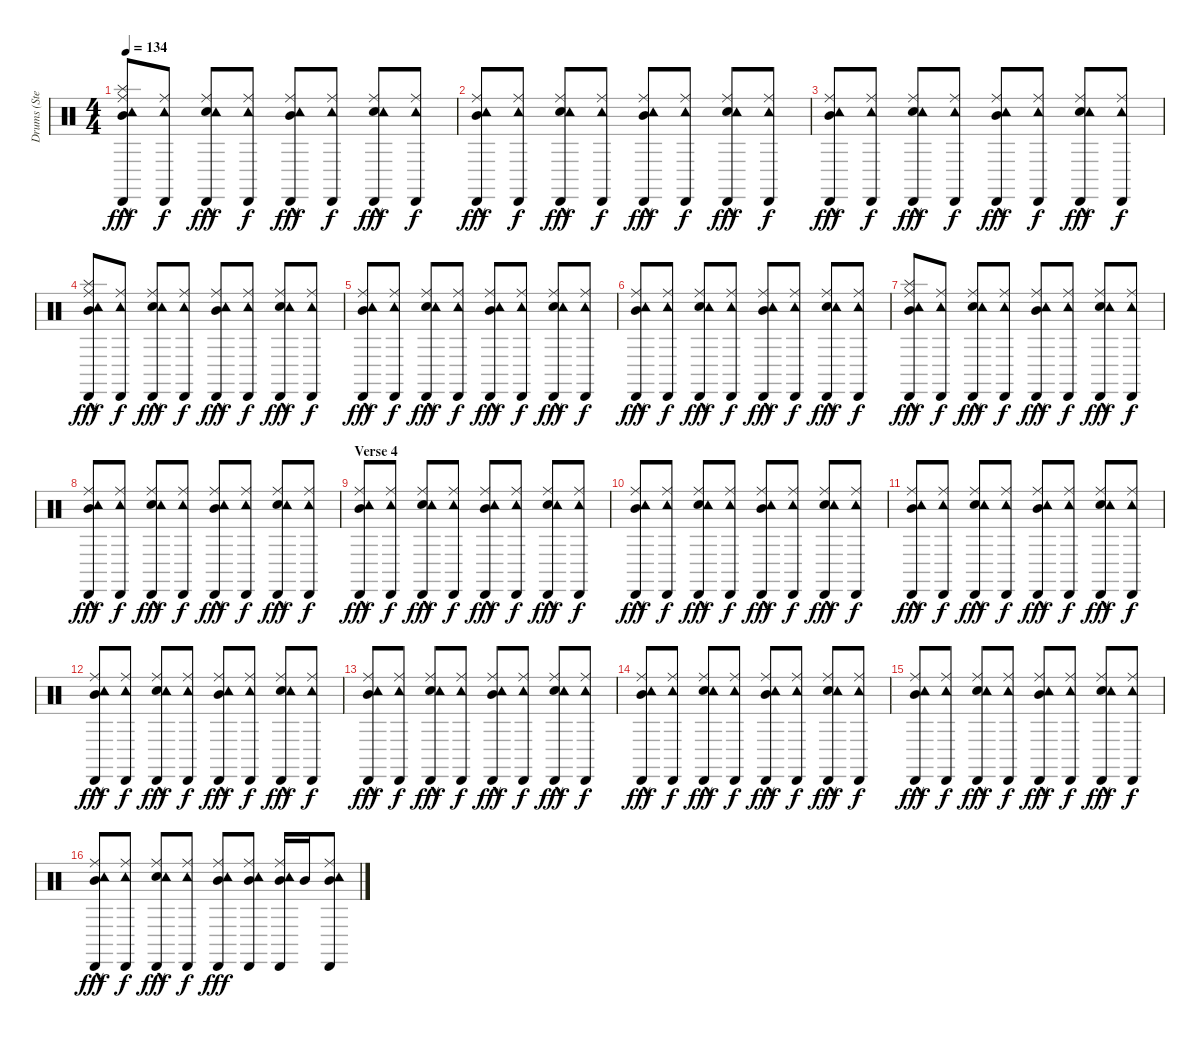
\track ("Drums (Steven)" "Drums (Ste") {instrument percussion}
\staff {score}
\articulation defaults
\ts (4 4)
\tempo 134
\clef neutral
\ks c
("Mid Tom (hit)"{hac} "Splash (hit)"{hac} "Ride (middle)" "Tambourine (hit)" "Cabasa (hit)").8{dy fff} ("Ride (middle)" "Tambourine (hit)" "Cabasa (hit)").8{dy f} ("Electric Snare (hit)"{hac} "Ride (middle)" "Tambourine (hit)" "Cabasa (hit)").8{dy fff} ("Ride (middle)" "Tambourine (hit)" "Cabasa (hit)").8{dy f} ("Mid Tom (hit)"{hac} "Ride (middle)" "Tambourine (hit)" "Cabasa (hit)").8{dy fff} ("Ride (middle)" "Tambourine (hit)" "Cabasa (hit)").8{dy f} ("Electric Snare (hit)"{hac} "Ride (middle)" "Tambourine (hit)" "Cabasa (hit)").8{dy fff} ("Ride (middle)" "Tambourine (hit)" "Cabasa (hit)").8{dy f} |
("Mid Tom (hit)"{hac} "Ride (middle)" "Tambourine (hit)" "Cabasa (hit)").8{dy fff} ("Ride (middle)" "Tambourine (hit)" "Cabasa (hit)").8{dy f} ("Electric Snare (hit)"{hac} "Ride (middle)" "Tambourine (hit)" "Cabasa (hit)").8{dy fff} ("Ride (middle)" "Tambourine (hit)" "Cabasa (hit)").8{dy f} ("Mid Tom (hit)"{hac} "Ride (middle)" "Tambourine (hit)" "Cabasa (hit)").8{dy fff} ("Ride (middle)" "Tambourine (hit)" "Cabasa (hit)").8{dy f} ("Electric Snare (hit)"{hac} "Ride (middle)" "Tambourine (hit)" "Cabasa (hit)").8{dy fff} ("Ride (middle)" "Tambourine (hit)" "Cabasa (hit)").8{dy f} |
("Mid Tom (hit)"{hac} "Ride (middle)" "Tambourine (hit)" "Cabasa (hit)").8{dy fff} ("Ride (middle)" "Tambourine (hit)" "Cabasa (hit)").8{dy f} ("Electric Snare (hit)"{hac} "Ride (middle)" "Tambourine (hit)" "Cabasa (hit)").8{dy fff} ("Ride (middle)" "Tambourine (hit)" "Cabasa (hit)").8{dy f} ("Mid Tom (hit)"{hac} "Ride (middle)" "Tambourine (hit)" "Cabasa (hit)").8{dy fff} ("Ride (middle)" "Tambourine (hit)" "Cabasa (hit)").8{dy f} ("Electric Snare (hit)"{hac} "Ride (middle)" "Tambourine (hit)" "Cabasa (hit)").8{dy fff} ("Ride (middle)" "Tambourine (hit)" "Cabasa (hit)").8{dy f} |
("Mid Tom (hit)"{hac} "Splash (hit)"{hac} "Ride (middle)" "Tambourine (hit)" "Cabasa (hit)").8{dy fff} ("Ride (middle)" "Tambourine (hit)" "Cabasa (hit)").8{dy f} ("Electric Snare (hit)"{hac} "Ride (middle)" "Tambourine (hit)" "Cabasa (hit)").8{dy fff} ("Ride (middle)" "Tambourine (hit)" "Cabasa (hit)").8{dy f} ("Mid Tom (hit)"{hac} "Ride (middle)" "Tambourine (hit)" "Cabasa (hit)").8{dy fff} ("Ride (middle)" "Tambourine (hit)" "Cabasa (hit)").8{dy f} ("Electric Snare (hit)"{hac} "Ride (middle)" "Tambourine (hit)" "Cabasa (hit)").8{dy fff} ("Ride (middle)" "Tambourine (hit)" "Cabasa (hit)").8{dy f} |
("Mid Tom (hit)"{hac} "Ride (middle)" "Tambourine (hit)" "Cabasa (hit)").8{dy fff} ("Ride (middle)" "Tambourine (hit)" "Cabasa (hit)").8{dy f} ("Electric Snare (hit)"{hac} "Ride (middle)" "Tambourine (hit)" "Cabasa (hit)").8{dy fff} ("Ride (middle)" "Tambourine (hit)" "Cabasa (hit)").8{dy f} ("Mid Tom (hit)"{hac} "Ride (middle)" "Tambourine (hit)" "Cabasa (hit)").8{dy fff} ("Ride (middle)" "Tambourine (hit)" "Cabasa (hit)").8{dy f} ("Electric Snare (hit)"{hac} "Ride (middle)" "Tambourine (hit)" "Cabasa (hit)").8{dy fff} ("Ride (middle)" "Tambourine (hit)" "Cabasa (hit)").8{dy f} |
("Mid Tom (hit)"{hac} "Ride (middle)" "Tambourine (hit)" "Cabasa (hit)").8{dy fff} ("Ride (middle)" "Tambourine (hit)" "Cabasa (hit)").8{dy f} ("Electric Snare (hit)"{hac} "Ride (middle)" "Tambourine (hit)" "Cabasa (hit)").8{dy fff} ("Ride (middle)" "Tambourine (hit)" "Cabasa (hit)").8{dy f} ("Mid Tom (hit)"{hac} "Ride (middle)" "Tambourine (hit)" "Cabasa (hit)").8{dy fff} ("Ride (middle)" "Tambourine (hit)" "Cabasa (hit)").8{dy f} ("Electric Snare (hit)"{hac} "Ride (middle)" "Tambourine (hit)" "Cabasa (hit)").8{dy fff} ("Ride (middle)" "Tambourine (hit)" "Cabasa (hit)").8{dy f} |
("Mid Tom (hit)"{hac} "Splash (hit)"{hac} "Ride (middle)" "Tambourine (hit)" "Cabasa (hit)").8{dy fff} ("Ride (middle)" "Tambourine (hit)" "Cabasa (hit)").8{dy f} ("Electric Snare (hit)"{hac} "Ride (middle)" "Tambourine (hit)" "Cabasa (hit)").8{dy fff} ("Ride (middle)" "Tambourine (hit)" "Cabasa (hit)").8{dy f} ("Mid Tom (hit)"{hac} "Ride (middle)" "Tambourine (hit)" "Cabasa (hit)").8{dy fff} ("Ride (middle)" "Tambourine (hit)" "Cabasa (hit)").8{dy f} ("Electric Snare (hit)"{hac} "Ride (middle)" "Tambourine (hit)" "Cabasa (hit)").8{dy fff} ("Ride (middle)" "Tambourine (hit)" "Cabasa (hit)").8{dy f} |
("Mid Tom (hit)"{hac} "Ride (middle)" "Tambourine (hit)" "Cabasa (hit)").8{dy fff} ("Ride (middle)" "Tambourine (hit)" "Cabasa (hit)").8{dy f} ("Electric Snare (hit)"{hac} "Ride (middle)" "Tambourine (hit)" "Cabasa (hit)").8{dy fff} ("Ride (middle)" "Tambourine (hit)" "Cabasa (hit)").8{dy f} ("Mid Tom (hit)"{hac} "Ride (middle)" "Tambourine (hit)" "Cabasa (hit)").8{dy fff} ("Ride (middle)" "Tambourine (hit)" "Cabasa (hit)").8{dy f} ("Electric Snare (hit)"{hac} "Ride (middle)" "Tambourine (hit)" "Cabasa (hit)").8{dy fff} ("Ride (middle)" "Tambourine (hit)" "Cabasa (hit)").8{dy f} |
\section ("" "Verse 4")
("Mid Tom (hit)"{hac} "Ride (middle)" "Tambourine (hit)" "Cabasa (hit)").8{dy fff} ("Ride (middle)" "Tambourine (hit)" "Cabasa (hit)").8{dy f} ("Electric Snare (hit)"{hac} "Ride (middle)" "Tambourine (hit)" "Cabasa (hit)").8{dy fff} ("Ride (middle)" "Tambourine (hit)" "Cabasa (hit)").8{dy f} ("Mid Tom (hit)"{hac} "Ride (middle)" "Tambourine (hit)" "Cabasa (hit)").8{dy fff} ("Ride (middle)" "Tambourine (hit)" "Cabasa (hit)").8{dy f} ("Electric Snare (hit)"{hac} "Ride (middle)" "Tambourine (hit)" "Cabasa (hit)").8{dy fff} ("Ride (middle)" "Tambourine (hit)" "Cabasa (hit)").8{dy f} |
("Mid Tom (hit)"{hac} "Ride (middle)" "Tambourine (hit)" "Cabasa (hit)").8{dy fff} ("Ride (middle)" "Tambourine (hit)" "Cabasa (hit)").8{dy f} ("Electric Snare (hit)"{hac} "Ride (middle)" "Tambourine (hit)" "Cabasa (hit)").8{dy fff} ("Ride (middle)" "Tambourine (hit)" "Cabasa (hit)").8{dy f} ("Mid Tom (hit)"{hac} "Ride (middle)" "Tambourine (hit)" "Cabasa (hit)").8{dy fff} ("Ride (middle)" "Tambourine (hit)" "Cabasa (hit)").8{dy f} ("Electric Snare (hit)"{hac} "Ride (middle)" "Tambourine (hit)" "Cabasa (hit)").8{dy fff} ("Ride (middle)" "Tambourine (hit)" "Cabasa (hit)").8{dy f} |
("Mid Tom (hit)"{hac} "Ride (middle)" "Tambourine (hit)" "Cabasa (hit)").8{dy fff} ("Ride (middle)" "Tambourine (hit)" "Cabasa (hit)").8{dy f} ("Electric Snare (hit)"{hac} "Ride (middle)" "Tambourine (hit)" "Cabasa (hit)").8{dy fff} ("Ride (middle)" "Tambourine (hit)" "Cabasa (hit)").8{dy f} ("Mid Tom (hit)"{hac} "Ride (middle)" "Tambourine (hit)" "Cabasa (hit)").8{dy fff} ("Ride (middle)" "Tambourine (hit)" "Cabasa (hit)").8{dy f} ("Electric Snare (hit)"{hac} "Ride (middle)" "Tambourine (hit)" "Cabasa (hit)").8{dy fff} ("Ride (middle)" "Tambourine (hit)" "Cabasa (hit)").8{dy f} |
("Mid Tom (hit)"{hac} "Ride (middle)" "Tambourine (hit)" "Cabasa (hit)").8{dy fff} ("Ride (middle)" "Tambourine (hit)" "Cabasa (hit)").8{dy f} ("Electric Snare (hit)"{hac} "Ride (middle)" "Tambourine (hit)" "Cabasa (hit)").8{dy fff} ("Ride (middle)" "Tambourine (hit)" "Cabasa (hit)").8{dy f} ("Mid Tom (hit)"{hac} "Ride (middle)" "Tambourine (hit)" "Cabasa (hit)").8{dy fff} ("Ride (middle)" "Tambourine (hit)" "Cabasa (hit)").8{dy f} ("Electric Snare (hit)"{hac} "Ride (middle)" "Tambourine (hit)" "Cabasa (hit)").8{dy fff} ("Ride (middle)" "Tambourine (hit)" "Cabasa (hit)").8{dy f} |
("Mid Tom (hit)"{hac} "Ride (middle)" "Tambourine (hit)" "Cabasa (hit)").8{dy fff} ("Ride (middle)" "Tambourine (hit)" "Cabasa (hit)").8{dy f} ("Electric Snare (hit)"{hac} "Ride (middle)" "Tambourine (hit)" "Cabasa (hit)").8{dy fff} ("Ride (middle)" "Tambourine (hit)" "Cabasa (hit)").8{dy f} ("Mid Tom (hit)"{hac} "Ride (middle)" "Tambourine (hit)" "Cabasa (hit)").8{dy fff} ("Ride (middle)" "Tambourine (hit)" "Cabasa (hit)").8{dy f} ("Electric Snare (hit)"{hac} "Ride (middle)" "Tambourine (hit)" "Cabasa (hit)").8{dy fff} ("Ride (middle)" "Tambourine (hit)" "Cabasa (hit)").8{dy f} |
("Mid Tom (hit)"{hac} "Ride (middle)" "Tambourine (hit)" "Cabasa (hit)").8{dy fff} ("Ride (middle)" "Tambourine (hit)" "Cabasa (hit)").8{dy f} ("Electric Snare (hit)"{hac} "Ride (middle)" "Tambourine (hit)" "Cabasa (hit)").8{dy fff} ("Ride (middle)" "Tambourine (hit)" "Cabasa (hit)").8{dy f} ("Mid Tom (hit)"{hac} "Ride (middle)" "Tambourine (hit)" "Cabasa (hit)").8{dy fff} ("Ride (middle)" "Tambourine (hit)" "Cabasa (hit)").8{dy f} ("Electric Snare (hit)"{hac} "Ride (middle)" "Tambourine (hit)" "Cabasa (hit)").8{dy fff} ("Ride (middle)" "Tambourine (hit)" "Cabasa (hit)").8{dy f} |
("Mid Tom (hit)"{hac} "Ride (middle)" "Tambourine (hit)" "Cabasa (hit)").8{dy fff} ("Ride (middle)" "Tambourine (hit)" "Cabasa (hit)").8{dy f} ("Electric Snare (hit)"{hac} "Ride (middle)" "Tambourine (hit)" "Cabasa (hit)").8{dy fff} ("Ride (middle)" "Tambourine (hit)" "Cabasa (hit)").8{dy f} ("Mid Tom (hit)"{hac} "Ride (middle)" "Tambourine (hit)" "Cabasa (hit)").8{dy fff} ("Ride (middle)" "Tambourine (hit)" "Cabasa (hit)").8{dy f} ("Electric Snare (hit)"{hac} "Ride (middle)" "Tambourine (hit)" "Cabasa (hit)").8{dy fff} ("Ride (middle)" "Tambourine (hit)" "Cabasa (hit)").8{dy f} |
("Mid Tom (hit)"{hac} "Ride (middle)" "Tambourine (hit)" "Cabasa (hit)").8{dy fff} ("Ride (middle)" "Tambourine (hit)" "Cabasa (hit)").8{dy f} ("Electric Snare (hit)"{hac} "Ride (middle)" "Tambourine (hit)" "Cabasa (hit)").8{dy fff} ("Ride (middle)" "Tambourine (hit)" "Cabasa (hit)").8{dy f} ("Mid Tom (hit)" "Ride (middle)" "Tambourine (hit)" "Cabasa (hit)").8{dy fff} ("Mid Tom (hit)" "Ride (middle)" "Tambourine (hit)" "Cabasa (hit)").8 ("Mid Tom (hit)" "Ride (middle)" "Tambourine (hit)" "Cabasa (hit)").16 "Mid Tom (hit)".16 ("Mid Tom (hit)" "Ride (middle)" "Tambourine (hit)" "Cabasa (hit)").8
